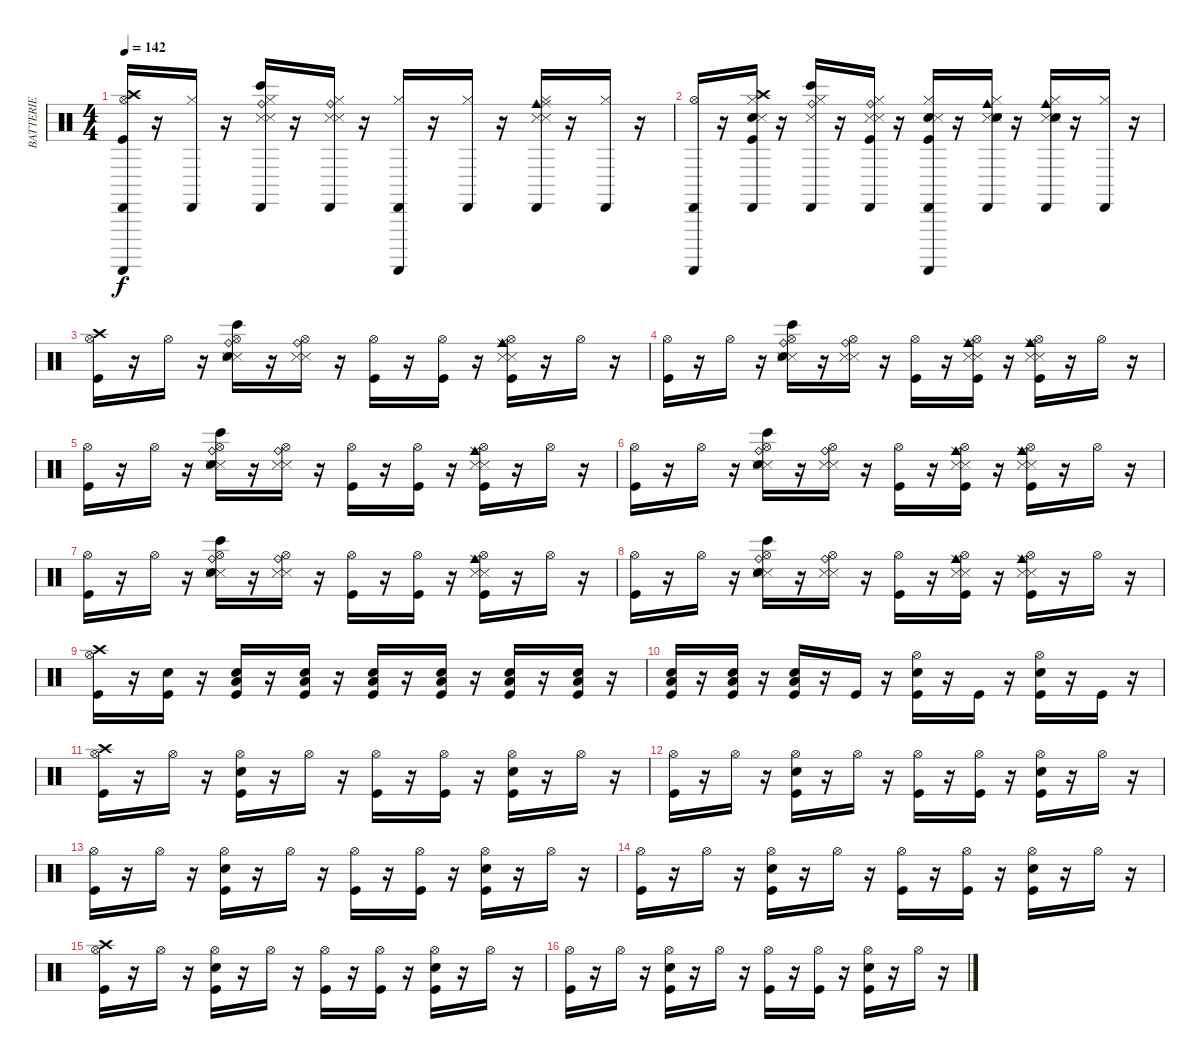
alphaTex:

\track ("BATTERIE" "BATTERIE") {instrument percussion}
\staff {score}
\articulation defaults
\ts (4 4)
\tempo 142
\clef neutral
\ks c
("Cabasa (hit)" "Hi-Hat (open)" "Guiro (scrap-return)" "Crash high (hit)" "Kick (hit)").16{dy f} r.16 ("Hi-Hat (closed)" "Cabasa (hit)").16 r.16 ("Hi-Hat (closed)" "Cabasa (hit)" "Bongo High (hit)" "Ride (bell)" "Metronome (hit)" "Snare (side stick) 3").16 r.16 ("Hi-Hat (closed)" "Cabasa (hit)" "Ride (bell)" "Metronome (hit)" "Snare (side stick) 3").16 r.16 ("Guiro (scrap-return)" "Hi-Hat (closed)" "Cabasa (hit)").16 r.16 ("Hi-Hat (closed)" "Cabasa (hit)").16 r.16 ("Hi-Hat (closed)" "Cabasa (hit)" "Cowbell medium (hit)" "Ride (middle)" "Metronome (hit)" "Snare (side stick) 3").16 r.16 ("Hi-Hat (closed)" "Cabasa (hit)").16 r.16 |
("Cabasa (hit)" "Hi-Hat (open)" "Guiro (scrap-return)").16 r.16 ("Hi-Hat (closed)" "Cabasa (hit)" "Snare (hit) 2" "Kick (hit)" "Crash high (hit)" "Metronome (hit)").16 r.16 ("Hi-Hat (closed)" "Cabasa (hit)" "Bongo High (hit)" "Ride (bell)" "Snare (side stick) 3").16 r.16 ("Hi-Hat (closed)" "Cabasa (hit)" "Ride (bell)" "Snare (side stick) 3" "Kick (hit)" "Metronome (hit)").16 r.16 ("Guiro (scrap-return)" "Hi-Hat (closed)" "Cabasa (hit)" "Snare (hit) 2" "Kick (hit)" "Metronome (hit)").16 r.16 ("Hi-Hat (closed)" "Cabasa (hit)" "Cowbell medium (hit)" "Snare (side stick) 3" "Snare (hit) 2" "Metronome (hit)").16 r.16 ("Hi-Hat (closed)" "Cabasa (hit)" "Cowbell medium (hit)" "Snare (side stick) 3" "Snare (hit) 2" "Metronome (hit)").16 r.16 ("Hi-Hat (closed)" "Cabasa (hit)").16 r.16 |
("Hi-Hat (open)" "Kick (hit)" "Crash high (hit)").16 r.16 "Hi-Hat (open)".16 r.16 ("Bongo High (hit)" "Ride (bell)" "Metronome (hit)" "Snare (side stick) 3" "Snare (hit) 2" "Hi-Hat (open)").16 r.16 ("Ride (bell)" "Metronome (hit)" "Snare (side stick) 3" "Hi-Hat (open)").16 r.16 ("Kick (hit)" "Hi-Hat (open)").16 r.16 ("Kick (hit)" "Hi-Hat (open)").16 r.16 ("Cowbell medium (hit)" "Ride (middle)" "Metronome (hit)" "Snare (side stick) 3" "Kick (hit)" "Hi-Hat (open)").16 r.16 "Hi-Hat (open)".16 r.16 |
("Hi-Hat (open)" "Kick (hit)").16 r.16 "Hi-Hat (open)".16 r.16 ("Bongo High (hit)" "Ride (bell)" "Metronome (hit)" "Snare (side stick) 3" "Snare (hit) 2" "Hi-Hat (open)").16 r.16 ("Ride (bell)" "Metronome (hit)" "Snare (side stick) 3" "Hi-Hat (open)").16 r.16 ("Kick (hit)" "Hi-Hat (open)").16 r.16 ("Ride (middle)" "Cowbell medium (hit)" "Snare (side stick) 3" "Metronome (hit)" "Kick (hit)" "Hi-Hat (open)").16 r.16 ("Cowbell medium (hit)" "Ride (middle)" "Metronome (hit)" "Snare (side stick) 3" "Kick (hit)" "Hi-Hat (open)").16 r.16 "Hi-Hat (open)".16 r.16 |
("Kick (hit)" "Hi-Hat (open)").16 r.16 "Hi-Hat (open)".16 r.16 ("Bongo High (hit)" "Ride (bell)" "Metronome (hit)" "Snare (side stick) 3" "Snare (hit) 2" "Hi-Hat (open)").16 r.16 ("Ride (bell)" "Metronome (hit)" "Snare (side stick) 3" "Hi-Hat (open)").16 r.16 ("Kick (hit)" "Hi-Hat (open)").16 r.16 ("Kick (hit)" "Hi-Hat (open)").16 r.16 ("Cowbell medium (hit)" "Ride (middle)" "Metronome (hit)" "Snare (side stick) 3" "Kick (hit)" "Hi-Hat (open)").16 r.16 "Hi-Hat (open)".16 r.16 |
("Hi-Hat (open)" "Kick (hit)").16 r.16 "Hi-Hat (open)".16 r.16 ("Bongo High (hit)" "Ride (bell)" "Metronome (hit)" "Snare (side stick) 3" "Snare (hit) 2" "Hi-Hat (open)").16 r.16 ("Ride (bell)" "Metronome (hit)" "Snare (side stick) 3" "Hi-Hat (open)").16 r.16 ("Kick (hit)" "Hi-Hat (open)").16 r.16 ("Ride (middle)" "Cowbell medium (hit)" "Snare (side stick) 3" "Metronome (hit)" "Kick (hit)" "Hi-Hat (open)").16 r.16 ("Cowbell medium (hit)" "Ride (middle)" "Metronome (hit)" "Snare (side stick) 3" "Kick (hit)" "Hi-Hat (open)").16 r.16 "Hi-Hat (open)".16 r.16 |
("Kick (hit)" "Hi-Hat (open)").16 r.16 "Hi-Hat (open)".16 r.16 ("Bongo High (hit)" "Ride (bell)" "Metronome (hit)" "Snare (side stick) 3" "Snare (hit) 2" "Hi-Hat (open)").16 r.16 ("Ride (bell)" "Metronome (hit)" "Snare (side stick) 3" "Hi-Hat (open)").16 r.16 ("Kick (hit)" "Hi-Hat (open)").16 r.16 ("Kick (hit)" "Hi-Hat (open)").16 r.16 ("Cowbell medium (hit)" "Ride (middle)" "Metronome (hit)" "Snare (side stick) 3" "Kick (hit)" "Hi-Hat (open)").16 r.16 "Hi-Hat (open)".16 r.16 |
("Hi-Hat (open)" "Kick (hit)").16 r.16 "Hi-Hat (open)".16 r.16 ("Bongo High (hit)" "Ride (bell)" "Metronome (hit)" "Snare (side stick) 3" "Snare (hit) 2" "Hi-Hat (open)").16 r.16 ("Ride (bell)" "Metronome (hit)" "Snare (side stick) 3" "Hi-Hat (open)").16 r.16 ("Kick (hit)" "Hi-Hat (open)").16 r.16 ("Ride (middle)" "Cowbell medium (hit)" "Snare (side stick) 3" "Metronome (hit)" "Kick (hit)" "Hi-Hat (open)").16 r.16 ("Cowbell medium (hit)" "Ride (middle)" "Metronome (hit)" "Snare (side stick) 3" "Kick (hit)" "Hi-Hat (open)").16 r.16 "Hi-Hat (open)".16 r.16 |
("Hi-Hat (open)" "Crash high (hit)" "Kick (hit)").16 r.16 ("Snare (hit) 2" "Kick (hit)").16 r.16 ("Snare (hit) 2" "Kick (hit)" "Low Floor Tom (hit)").16 r.16 ("Snare (hit) 2" "Kick (hit)" "Low Floor Tom (hit)").16 r.16 ("Snare (hit) 2" "Kick (hit)" "Low Floor Tom (hit)").16 r.16 ("Snare (hit) 2" "Kick (hit)" "Low Floor Tom (hit)").16 r.16 ("Snare (hit) 2" "Kick (hit)" "Low Floor Tom (hit)").16 r.16 ("Snare (hit) 2" "Kick (hit)" "Low Floor Tom (hit)").16 r.16 |
("Snare (hit) 2" "Kick (hit)" "Low Floor Tom (hit)").16 r.16 ("Snare (hit) 2" "Kick (hit)" "Low Floor Tom (hit)").16 r.16 ("Snare (hit) 2" "Kick (hit)" "Low Floor Tom (hit)").16 r.16 "Kick (hit)".16 r.16 ("Snare (hit) 2" "Kick (hit)" "Hi-Hat (open)").16 r.16 "Kick (hit)".16 r.16 ("Snare (hit) 2" "Kick (hit)" "Hi-Hat (open)").16 r.16 "Kick (hit)".16 r.16 |
("Kick (hit)" "Hi-Hat (open)" "Crash high (hit)").16 r.16 "Hi-Hat (open)".16 r.16 ("Snare (hit) 2" "Kick (hit)" "Hi-Hat (open)").16 r.16 "Hi-Hat (open)".16 r.16 ("Kick (hit)" "Hi-Hat (open)").16 r.16 ("Kick (hit)" "Hi-Hat (open)").16 r.16 ("Kick (hit)" "Snare (hit) 2" "Hi-Hat (open)").16 r.16 "Hi-Hat (open)".16 r.16 |
("Kick (hit)" "Hi-Hat (open)").16 r.16 "Hi-Hat (open)".16 r.16 ("Snare (hit) 2" "Kick (hit)" "Hi-Hat (open)").16 r.16 "Hi-Hat (open)".16 r.16 ("Kick (hit)" "Hi-Hat (open)").16 r.16 ("Kick (hit)" "Hi-Hat (open)").16 r.16 ("Kick (hit)" "Snare (hit) 2" "Hi-Hat (open)").16 r.16 "Hi-Hat (open)".16 r.16 |
("Hi-Hat (open)" "Kick (hit)").16 r.16 "Hi-Hat (open)".16 r.16 ("Snare (hit) 2" "Kick (hit)" "Hi-Hat (open)").16 r.16 "Hi-Hat (open)".16 r.16 ("Kick (hit)" "Hi-Hat (open)").16 r.16 ("Kick (hit)" "Hi-Hat (open)").16 r.16 ("Kick (hit)" "Snare (hit) 2" "Hi-Hat (open)").16 r.16 "Hi-Hat (open)".16 r.16 |
("Hi-Hat (open)" "Kick (hit)").16 r.16 "Hi-Hat (open)".16 r.16 ("Snare (hit) 2" "Kick (hit)" "Hi-Hat (open)").16 r.16 "Hi-Hat (open)".16 r.16 ("Kick (hit)" "Hi-Hat (open)").16 r.16 ("Kick (hit)" "Hi-Hat (open)").16 r.16 ("Kick (hit)" "Snare (hit) 2" "Hi-Hat (open)").16 r.16 "Hi-Hat (open)".16 r.16 |
("Hi-Hat (open)" "Kick (hit)" "Crash high (hit)").16 r.16 "Hi-Hat (open)".16 r.16 ("Snare (hit) 2" "Kick (hit)" "Hi-Hat (open)").16 r.16 "Hi-Hat (open)".16 r.16 ("Kick (hit)" "Hi-Hat (open)").16 r.16 ("Kick (hit)" "Hi-Hat (open)").16 r.16 ("Kick (hit)" "Snare (hit) 2" "Hi-Hat (open)").16 r.16 "Hi-Hat (open)".16 r.16 |
("Hi-Hat (open)" "Kick (hit)").16 r.16 "Hi-Hat (open)".16 r.16 ("Snare (hit) 2" "Kick (hit)" "Hi-Hat (open)").16 r.16 "Hi-Hat (open)".16 r.16 ("Kick (hit)" "Hi-Hat (open)").16 r.16 ("Kick (hit)" "Hi-Hat (open)").16 r.16 ("Kick (hit)" "Snare (hit) 2" "Hi-Hat (open)").16 r.16 "Hi-Hat (open)".16 r.16
